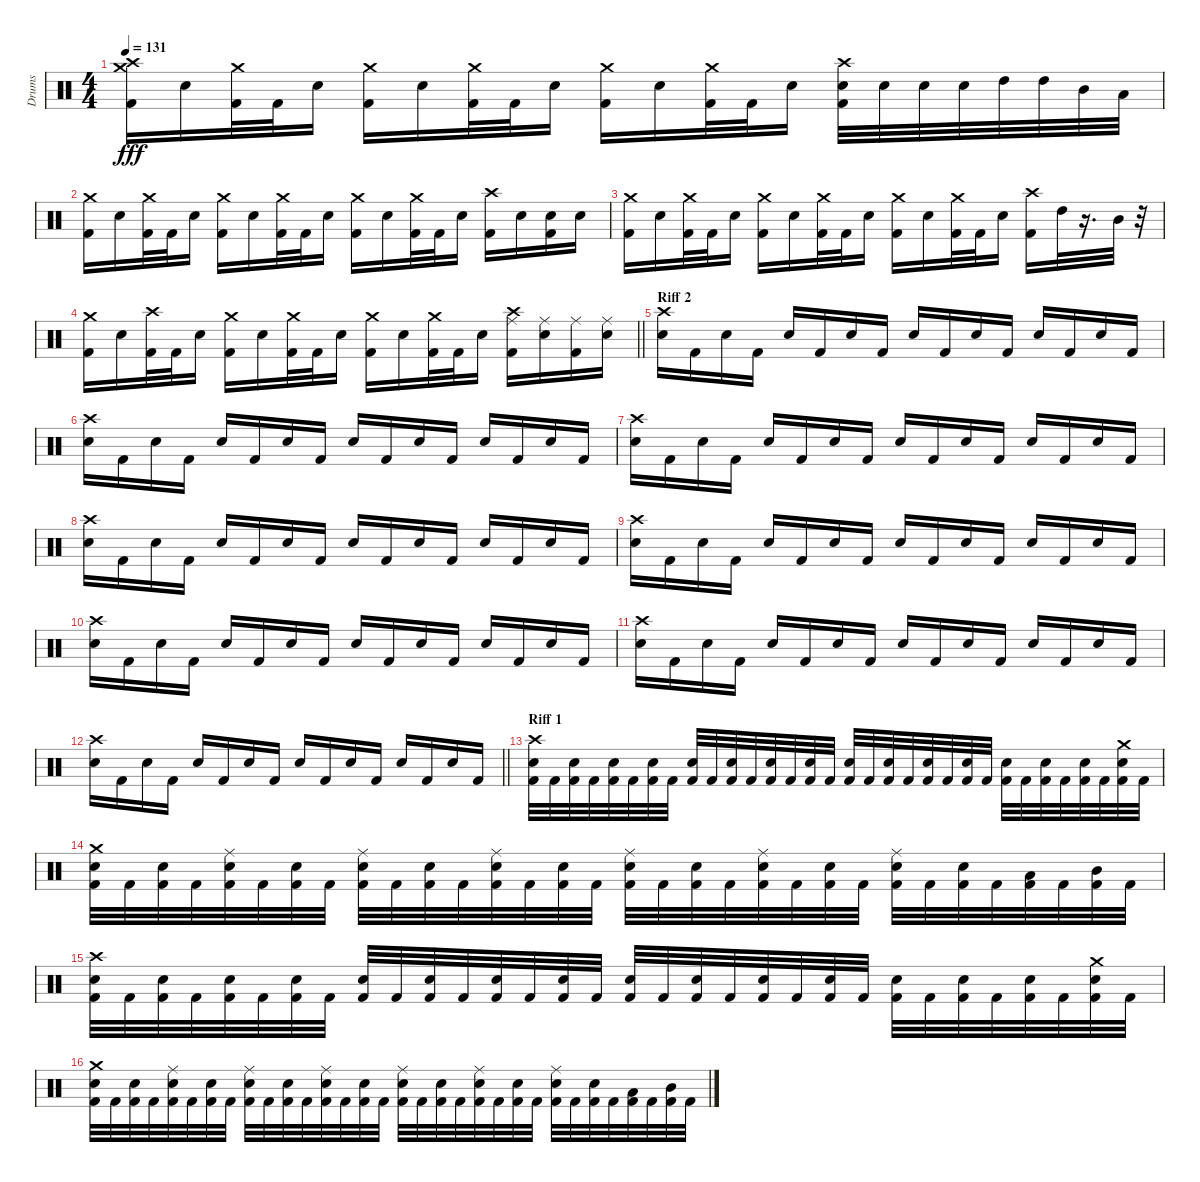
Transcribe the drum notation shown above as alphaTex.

\track ("Drums" "Drums") {instrument percussion}
\staff {score}
\articulation defaults
\ts (4 4)
\tempo 131
\clef neutral
\ks c
("Crash high (hit)" "Crash medium (hit)" "Kick (hit) 2").16{dy fff} "Snare (hit) 2".16 ("Crash medium (hit)" "Kick (hit) 2").32 "Kick (hit) 2".32 "Snare (hit) 2".16 ("Crash medium (hit)" "Kick (hit) 2").16 "Snare (hit) 2".16 ("Crash medium (hit)" "Kick (hit) 2").32 "Kick (hit) 2".32 "Snare (hit) 2".16 ("Crash medium (hit)" "Kick (hit) 2").16 "Snare (hit) 2".16 ("Crash medium (hit)" "Kick (hit) 2").32 "Kick (hit) 2".32 "Snare (hit) 2".16 ("Crash high (hit)" "Kick (hit) 2" "Snare (hit) 2").32 "Snare (hit) 2".32 "Snare (hit) 2".32 "Snare (hit) 2".32 "High Tom (hit)".32 "High Tom (hit)".32 "Mid Tom (hit)".32 "Low Tom (hit)".32 |
("Crash medium (hit)" "Kick (hit) 2").16 "Snare (hit) 2".16 ("Crash medium (hit)" "Kick (hit) 2").32 "Kick (hit) 2".32 "Snare (hit) 2".16 ("Crash medium (hit)" "Kick (hit) 2").16 "Snare (hit) 2".16 ("Crash medium (hit)" "Kick (hit) 2").32 "Kick (hit) 2".32 "Snare (hit) 2".16 ("Crash medium (hit)" "Kick (hit) 2").16 "Snare (hit) 2".16 ("Crash medium (hit)" "Kick (hit) 2").32 "Kick (hit) 2".32 "Snare (hit) 2".16 ("Crash high (hit)" "Kick (hit) 2").16 "Snare (hit) 2".16 ("Kick (hit) 2" "Snare (hit) 2").16 "Snare (hit) 2".16 |
("Crash medium (hit)" "Kick (hit) 2").16 "Snare (hit) 2".16 ("Crash medium (hit)" "Kick (hit) 2").32 "Kick (hit) 2".32 "Snare (hit) 2".16 ("Crash medium (hit)" "Kick (hit) 2").16 "Snare (hit) 2".16 ("Crash medium (hit)" "Kick (hit) 2").32 "Kick (hit) 2".32 "Snare (hit) 2".16 ("Crash medium (hit)" "Kick (hit) 2").16 "Snare (hit) 2".16 ("Crash medium (hit)" "Kick (hit) 2").32 "Kick (hit) 2".32 "Snare (hit) 2".16 ("Crash high (hit)" "Kick (hit) 2").16 "High Tom (hit)".32 r.16{d} "Mid Tom (hit)".32 r.32 |
\barLineRight lightlight
("Crash medium (hit)" "Kick (hit) 2").16 "Snare (hit) 2".16 ("Crash high (hit)" "Kick (hit) 2").32 "Kick (hit) 2".32 "Snare (hit) 2".16 ("Crash medium (hit)" "Kick (hit) 2").16 "Snare (hit) 2".16 ("Crash medium (hit)" "Kick (hit) 2").32 "Kick (hit) 2".32 "Snare (hit) 2".16 ("Crash medium (hit)" "Kick (hit) 2").16 "Snare (hit) 2".16 ("Crash medium (hit)" "Kick (hit) 2").32 "Kick (hit) 2".32 "Snare (hit) 2".16 ("Crash high (hit)" "Kick (hit) 2" "Ride (middle)").16 ("Snare (hit) 2" "Ride (middle)").16 ("Kick (hit) 2" "Ride (middle)").16 ("Snare (hit) 2" "Ride (middle)").16 |
\section ("" "Riff 2")
("Crash high (hit)" "Snare (hit) 2").16 "Kick (hit) 2".16 "Snare (hit) 2".16 "Kick (hit) 2".16 "Snare (hit) 2".16 "Kick (hit) 2".16 "Snare (hit) 2".16 "Kick (hit) 2".16 "Snare (hit) 2".16 "Kick (hit) 2".16 "Snare (hit) 2".16 "Kick (hit) 2".16 "Snare (hit) 2".16 "Kick (hit) 2".16 "Snare (hit) 2".16 "Kick (hit) 2".16 |
("Crash high (hit)" "Snare (hit) 2").16 "Kick (hit) 2".16 "Snare (hit) 2".16 "Kick (hit) 2".16 "Snare (hit) 2".16 "Kick (hit) 2".16 "Snare (hit) 2".16 "Kick (hit) 2".16 "Snare (hit) 2".16 "Kick (hit) 2".16 "Snare (hit) 2".16 "Kick (hit) 2".16 "Snare (hit) 2".16 "Kick (hit) 2".16 "Snare (hit) 2".16 "Kick (hit) 2".16 |
("Crash high (hit)" "Snare (hit) 2").16 "Kick (hit) 2".16 "Snare (hit) 2".16 "Kick (hit) 2".16 "Snare (hit) 2".16 "Kick (hit) 2".16 "Snare (hit) 2".16 "Kick (hit) 2".16 "Snare (hit) 2".16 "Kick (hit) 2".16 "Snare (hit) 2".16 "Kick (hit) 2".16 "Snare (hit) 2".16 "Kick (hit) 2".16 "Snare (hit) 2".16 "Kick (hit) 2".16 |
("Crash high (hit)" "Snare (hit) 2").16 "Kick (hit) 2".16 "Snare (hit) 2".16 "Kick (hit) 2".16 "Snare (hit) 2".16 "Kick (hit) 2".16 "Snare (hit) 2".16 "Kick (hit) 2".16 "Snare (hit) 2".16 "Kick (hit) 2".16 "Snare (hit) 2".16 "Kick (hit) 2".16 "Snare (hit) 2".16 "Kick (hit) 2".16 "Snare (hit) 2".16 "Kick (hit) 2".16 |
("Crash high (hit)" "Snare (hit) 2").16 "Kick (hit) 2".16 "Snare (hit) 2".16 "Kick (hit) 2".16 "Snare (hit) 2".16 "Kick (hit) 2".16 "Snare (hit) 2".16 "Kick (hit) 2".16 "Snare (hit) 2".16 "Kick (hit) 2".16 "Snare (hit) 2".16 "Kick (hit) 2".16 "Snare (hit) 2".16 "Kick (hit) 2".16 "Snare (hit) 2".16 "Kick (hit) 2".16 |
("Crash high (hit)" "Snare (hit) 2").16 "Kick (hit) 2".16 "Snare (hit) 2".16 "Kick (hit) 2".16 "Snare (hit) 2".16 "Kick (hit) 2".16 "Snare (hit) 2".16 "Kick (hit) 2".16 "Snare (hit) 2".16 "Kick (hit) 2".16 "Snare (hit) 2".16 "Kick (hit) 2".16 "Snare (hit) 2".16 "Kick (hit) 2".16 "Snare (hit) 2".16 "Kick (hit) 2".16 |
("Crash high (hit)" "Snare (hit) 2").16 "Kick (hit) 2".16 "Snare (hit) 2".16 "Kick (hit) 2".16 "Snare (hit) 2".16 "Kick (hit) 2".16 "Snare (hit) 2".16 "Kick (hit) 2".16 "Snare (hit) 2".16 "Kick (hit) 2".16 "Snare (hit) 2".16 "Kick (hit) 2".16 "Snare (hit) 2".16 "Kick (hit) 2".16 "Snare (hit) 2".16 "Kick (hit) 2".16 |
\barLineRight lightlight
("Crash high (hit)" "Snare (hit) 2").16 "Kick (hit) 2".16 "Snare (hit) 2".16 "Kick (hit) 2".16 "Snare (hit) 2".16 "Kick (hit) 2".16 "Snare (hit) 2".16 "Kick (hit) 2".16 "Snare (hit) 2".16 "Kick (hit) 2".16 "Snare (hit) 2".16 "Kick (hit) 2".16 "Snare (hit) 2".16 "Kick (hit) 2".16 "Snare (hit) 2".16 "Kick (hit) 2".16 |
\section ("" "Riff 1")
("Crash high (hit)" "Kick (hit) 2" "Snare (hit) 2").32 "Kick (hit) 2".32 ("Kick (hit) 2" "Snare (hit) 2").32 "Kick (hit) 2".32 ("Kick (hit) 2" "Snare (hit) 2").32 "Kick (hit) 2".32 ("Kick (hit) 2" "Snare (hit) 2").32 "Kick (hit) 2".32 ("Kick (hit) 2" "Snare (hit) 2").32 "Kick (hit) 2".32 ("Kick (hit) 2" "Snare (hit) 2").32 "Kick (hit) 2".32 ("Kick (hit) 2" "Snare (hit) 2").32 "Kick (hit) 2".32 ("Kick (hit) 2" "Snare (hit) 2").32 "Kick (hit) 2".32 ("Kick (hit) 2" "Snare (hit) 2").32 "Kick (hit) 2".32 ("Kick (hit) 2" "Snare (hit) 2").32 "Kick (hit) 2".32 ("Kick (hit) 2" "Snare (hit) 2").32 "Kick (hit) 2".32 ("Kick (hit) 2" "Snare (hit) 2").32 "Kick (hit) 2".32 ("Kick (hit) 2" "Snare (hit) 2").32 "Kick (hit) 2".32 ("Kick (hit) 2" "Snare (hit) 2").32 "Kick (hit) 2".32 ("Kick (hit) 2" "Snare (hit) 2").32 "Kick (hit) 2".32 ("Crash medium (hit)" "Kick (hit) 2" "Snare (hit) 2").32 "Kick (hit) 2".32 |
("Crash medium (hit)" "Kick (hit) 2" "Snare (hit) 2").32 "Kick (hit) 2".32 ("Kick (hit) 2" "Snare (hit) 2").32 "Kick (hit) 2".32 ("Kick (hit) 2" "Snare (hit) 2" "Ride (middle)").32 "Kick (hit) 2".32 ("Kick (hit) 2" "Snare (hit) 2").32 "Kick (hit) 2".32 ("Kick (hit) 2" "Snare (hit) 2" "Ride (middle)").32 "Kick (hit) 2".32 ("Kick (hit) 2" "Snare (hit) 2").32 "Kick (hit) 2".32 ("Kick (hit) 2" "Snare (hit) 2" "Ride (middle)").32 "Kick (hit) 2".32 ("Kick (hit) 2" "Snare (hit) 2").32 "Kick (hit) 2".32 ("Kick (hit) 2" "Snare (hit) 2" "Ride (middle)").32 "Kick (hit) 2".32 ("Kick (hit) 2" "Snare (hit) 2").32 "Kick (hit) 2".32 ("Kick (hit) 2" "Snare (hit) 2" "Ride (middle)").32 "Kick (hit) 2".32 ("Kick (hit) 2" "Snare (hit) 2").32 "Kick (hit) 2".32 ("Kick (hit) 2" "Snare (hit) 2" "Ride (middle)").32 "Kick (hit) 2".32 ("Kick (hit) 2" "Snare (hit) 2").32 "Kick (hit) 2".32 ("Kick (hit) 2" "Low Tom (hit)").32 "Kick (hit) 2".32 ("Kick (hit) 2" "Mid Tom (hit)").32 "Kick (hit) 2".32 |
("Crash high (hit)" "Kick (hit) 2" "Snare (hit) 2").32 "Kick (hit) 2".32 ("Kick (hit) 2" "Snare (hit) 2").32 "Kick (hit) 2".32 ("Kick (hit) 2" "Snare (hit) 2").32 "Kick (hit) 2".32 ("Kick (hit) 2" "Snare (hit) 2").32 "Kick (hit) 2".32 ("Kick (hit) 2" "Snare (hit) 2").32 "Kick (hit) 2".32 ("Kick (hit) 2" "Snare (hit) 2").32 "Kick (hit) 2".32 ("Kick (hit) 2" "Snare (hit) 2").32 "Kick (hit) 2".32 ("Kick (hit) 2" "Snare (hit) 2").32 "Kick (hit) 2".32 ("Kick (hit) 2" "Snare (hit) 2").32 "Kick (hit) 2".32 ("Kick (hit) 2" "Snare (hit) 2").32 "Kick (hit) 2".32 ("Kick (hit) 2" "Snare (hit) 2").32 "Kick (hit) 2".32 ("Kick (hit) 2" "Snare (hit) 2").32 "Kick (hit) 2".32 ("Kick (hit) 2" "Snare (hit) 2").32 "Kick (hit) 2".32 ("Kick (hit) 2" "Snare (hit) 2").32 "Kick (hit) 2".32 ("Kick (hit) 2" "Snare (hit) 2").32 "Kick (hit) 2".32 ("Crash medium (hit)" "Kick (hit) 2" "Snare (hit) 2").32 "Kick (hit) 2".32 |
("Crash medium (hit)" "Kick (hit) 2" "Snare (hit) 2").32 "Kick (hit) 2".32 ("Kick (hit) 2" "Snare (hit) 2").32 "Kick (hit) 2".32 ("Kick (hit) 2" "Snare (hit) 2" "Ride (middle)").32 "Kick (hit) 2".32 ("Kick (hit) 2" "Snare (hit) 2").32 "Kick (hit) 2".32 ("Kick (hit) 2" "Snare (hit) 2" "Ride (middle)").32 "Kick (hit) 2".32 ("Kick (hit) 2" "Snare (hit) 2").32 "Kick (hit) 2".32 ("Kick (hit) 2" "Snare (hit) 2" "Ride (middle)").32 "Kick (hit) 2".32 ("Kick (hit) 2" "Snare (hit) 2").32 "Kick (hit) 2".32 ("Kick (hit) 2" "Snare (hit) 2" "Ride (middle)").32 "Kick (hit) 2".32 ("Kick (hit) 2" "Snare (hit) 2").32 "Kick (hit) 2".32 ("Kick (hit) 2" "Snare (hit) 2" "Ride (middle)").32 "Kick (hit) 2".32 ("Kick (hit) 2" "Snare (hit) 2").32 "Kick (hit) 2".32 ("Kick (hit) 2" "Snare (hit) 2" "Ride (middle)").32 "Kick (hit) 2".32 ("Kick (hit) 2" "Snare (hit) 2").32 "Kick (hit) 2".32 ("Kick (hit) 2" "Low Tom (hit)").32 "Kick (hit) 2".32 ("Kick (hit) 2" "Mid Tom (hit)").32 "Kick (hit) 2".32
